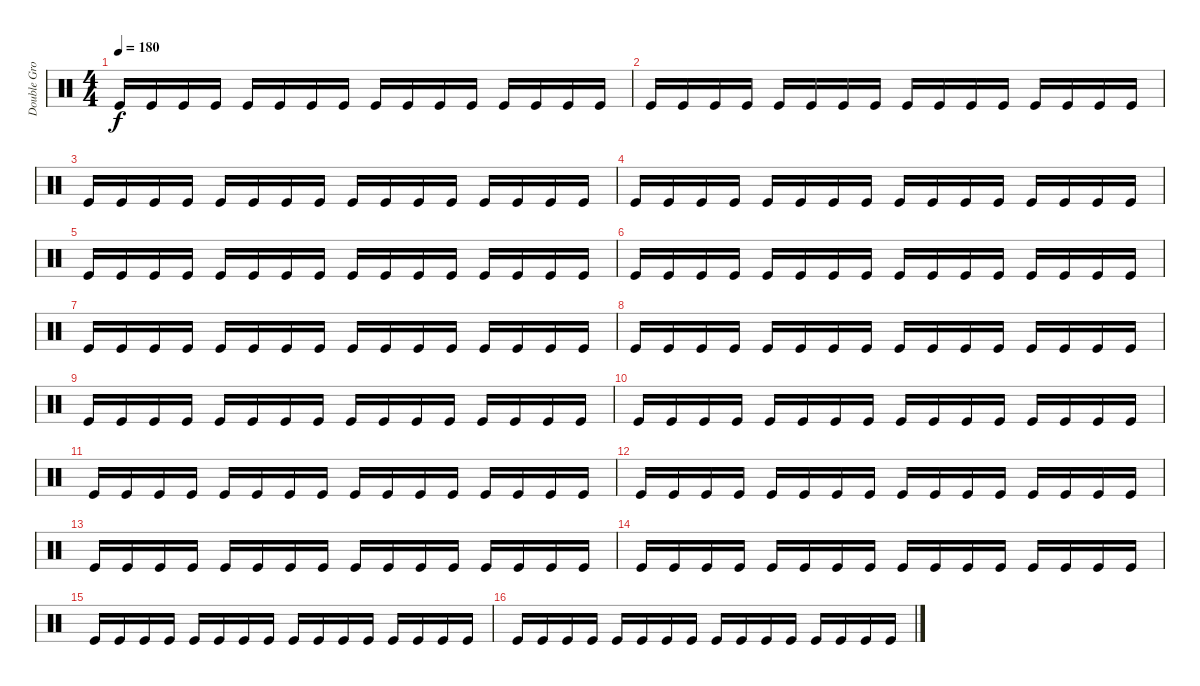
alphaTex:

\track ("Double Grosse Caisse" "Double Gro") {instrument percussion}
\staff {score}
\articulation defaults
\ts (4 4)
\tempo 180
\clef neutral
\ks c "Kick (hit)".16{dy f} "Kick (hit)".16 "Kick (hit)".16 "Kick (hit)".16 "Kick (hit)".16 "Kick (hit)".16 "Kick (hit)".16 "Kick (hit)".16 "Kick (hit)".16 "Kick (hit)".16 "Kick (hit)".16 "Kick (hit)".16 "Kick (hit)".16 "Kick (hit)".16 "Kick (hit)".16 "Kick (hit)".16
|
"Kick (hit)".16 "Kick (hit)".16 "Kick (hit)".16 "Kick (hit)".16 "Kick (hit)".16 "Kick (hit)".16 "Kick (hit)".16 "Kick (hit)".16 "Kick (hit)".16 "Kick (hit)".16 "Kick (hit)".16 "Kick (hit)".16 "Kick (hit)".16 "Kick (hit)".16 "Kick (hit)".16 "Kick (hit)".16 |
"Kick (hit)".16 "Kick (hit)".16 "Kick (hit)".16 "Kick (hit)".16 "Kick (hit)".16 "Kick (hit)".16 "Kick (hit)".16 "Kick (hit)".16 "Kick (hit)".16 "Kick (hit)".16 "Kick (hit)".16 "Kick (hit)".16 "Kick (hit)".16 "Kick (hit)".16 "Kick (hit)".16 "Kick (hit)".16 |
"Kick (hit)".16 "Kick (hit)".16 "Kick (hit)".16 "Kick (hit)".16 "Kick (hit)".16 "Kick (hit)".16 "Kick (hit)".16 "Kick (hit)".16 "Kick (hit)".16 "Kick (hit)".16 "Kick (hit)".16 "Kick (hit)".16 "Kick (hit)".16 "Kick (hit)".16 "Kick (hit)".16 "Kick (hit)".16 |
"Kick (hit)".16 "Kick (hit)".16 "Kick (hit)".16 "Kick (hit)".16 "Kick (hit)".16 "Kick (hit)".16 "Kick (hit)".16 "Kick (hit)".16 "Kick (hit)".16 "Kick (hit)".16 "Kick (hit)".16 "Kick (hit)".16 "Kick (hit)".16 "Kick (hit)".16 "Kick (hit)".16 "Kick (hit)".16 |
"Kick (hit)".16 "Kick (hit)".16 "Kick (hit)".16 "Kick (hit)".16 "Kick (hit)".16 "Kick (hit)".16 "Kick (hit)".16 "Kick (hit)".16 "Kick (hit)".16 "Kick (hit)".16 "Kick (hit)".16 "Kick (hit)".16 "Kick (hit)".16 "Kick (hit)".16 "Kick (hit)".16 "Kick (hit)".16 |
"Kick (hit)".16 "Kick (hit)".16 "Kick (hit)".16 "Kick (hit)".16 "Kick (hit)".16 "Kick (hit)".16 "Kick (hit)".16 "Kick (hit)".16 "Kick (hit)".16 "Kick (hit)".16 "Kick (hit)".16 "Kick (hit)".16 "Kick (hit)".16 "Kick (hit)".16 "Kick (hit)".16 "Kick (hit)".16 |
"Kick (hit)".16 "Kick (hit)".16 "Kick (hit)".16 "Kick (hit)".16 "Kick (hit)".16 "Kick (hit)".16 "Kick (hit)".16 "Kick (hit)".16 "Kick (hit)".16 "Kick (hit)".16 "Kick (hit)".16 "Kick (hit)".16 "Kick (hit)".16 "Kick (hit)".16 "Kick (hit)".16 "Kick (hit)".16 |
"Kick (hit)".16 "Kick (hit)".16 "Kick (hit)".16 "Kick (hit)".16 "Kick (hit)".16 "Kick (hit)".16 "Kick (hit)".16 "Kick (hit)".16 "Kick (hit)".16 "Kick (hit)".16 "Kick (hit)".16 "Kick (hit)".16 "Kick (hit)".16 "Kick (hit)".16 "Kick (hit)".16 "Kick (hit)".16 |
"Kick (hit)".16 "Kick (hit)".16 "Kick (hit)".16 "Kick (hit)".16 "Kick (hit)".16 "Kick (hit)".16 "Kick (hit)".16 "Kick (hit)".16 "Kick (hit)".16 "Kick (hit)".16 "Kick (hit)".16 "Kick (hit)".16 "Kick (hit)".16 "Kick (hit)".16 "Kick (hit)".16 "Kick (hit)".16 |
"Kick (hit)".16 "Kick (hit)".16 "Kick (hit)".16 "Kick (hit)".16 "Kick (hit)".16 "Kick (hit)".16 "Kick (hit)".16 "Kick (hit)".16 "Kick (hit)".16 "Kick (hit)".16 "Kick (hit)".16 "Kick (hit)".16 "Kick (hit)".16 "Kick (hit)".16 "Kick (hit)".16 "Kick (hit)".16 |
"Kick (hit)".16 "Kick (hit)".16 "Kick (hit)".16 "Kick (hit)".16 "Kick (hit)".16 "Kick (hit)".16 "Kick (hit)".16 "Kick (hit)".16 "Kick (hit)".16 "Kick (hit)".16 "Kick (hit)".16 "Kick (hit)".16 "Kick (hit)".16 "Kick (hit)".16 "Kick (hit)".16 "Kick (hit)".16 |
"Kick (hit)".16 "Kick (hit)".16 "Kick (hit)".16 "Kick (hit)".16 "Kick (hit)".16 "Kick (hit)".16 "Kick (hit)".16 "Kick (hit)".16 "Kick (hit)".16 "Kick (hit)".16 "Kick (hit)".16 "Kick (hit)".16 "Kick (hit)".16 "Kick (hit)".16 "Kick (hit)".16 "Kick (hit)".16 |
"Kick (hit)".16 "Kick (hit)".16 "Kick (hit)".16 "Kick (hit)".16 "Kick (hit)".16 "Kick (hit)".16 "Kick (hit)".16 "Kick (hit)".16 "Kick (hit)".16 "Kick (hit)".16 "Kick (hit)".16 "Kick (hit)".16 "Kick (hit)".16 "Kick (hit)".16 "Kick (hit)".16 "Kick (hit)".16 |
"Kick (hit)".16 "Kick (hit)".16 "Kick (hit)".16 "Kick (hit)".16 "Kick (hit)".16 "Kick (hit)".16 "Kick (hit)".16 "Kick (hit)".16 "Kick (hit)".16 "Kick (hit)".16 "Kick (hit)".16 "Kick (hit)".16 "Kick (hit)".16 "Kick (hit)".16 "Kick (hit)".16 "Kick (hit)".16 |
"Kick (hit)".16 "Kick (hit)".16 "Kick (hit)".16 "Kick (hit)".16 "Kick (hit)".16 "Kick (hit)".16 "Kick (hit)".16 "Kick (hit)".16 "Kick (hit)".16 "Kick (hit)".16 "Kick (hit)".16 "Kick (hit)".16 "Kick (hit)".16 "Kick (hit)".16 "Kick (hit)".16 "Kick (hit)".16
